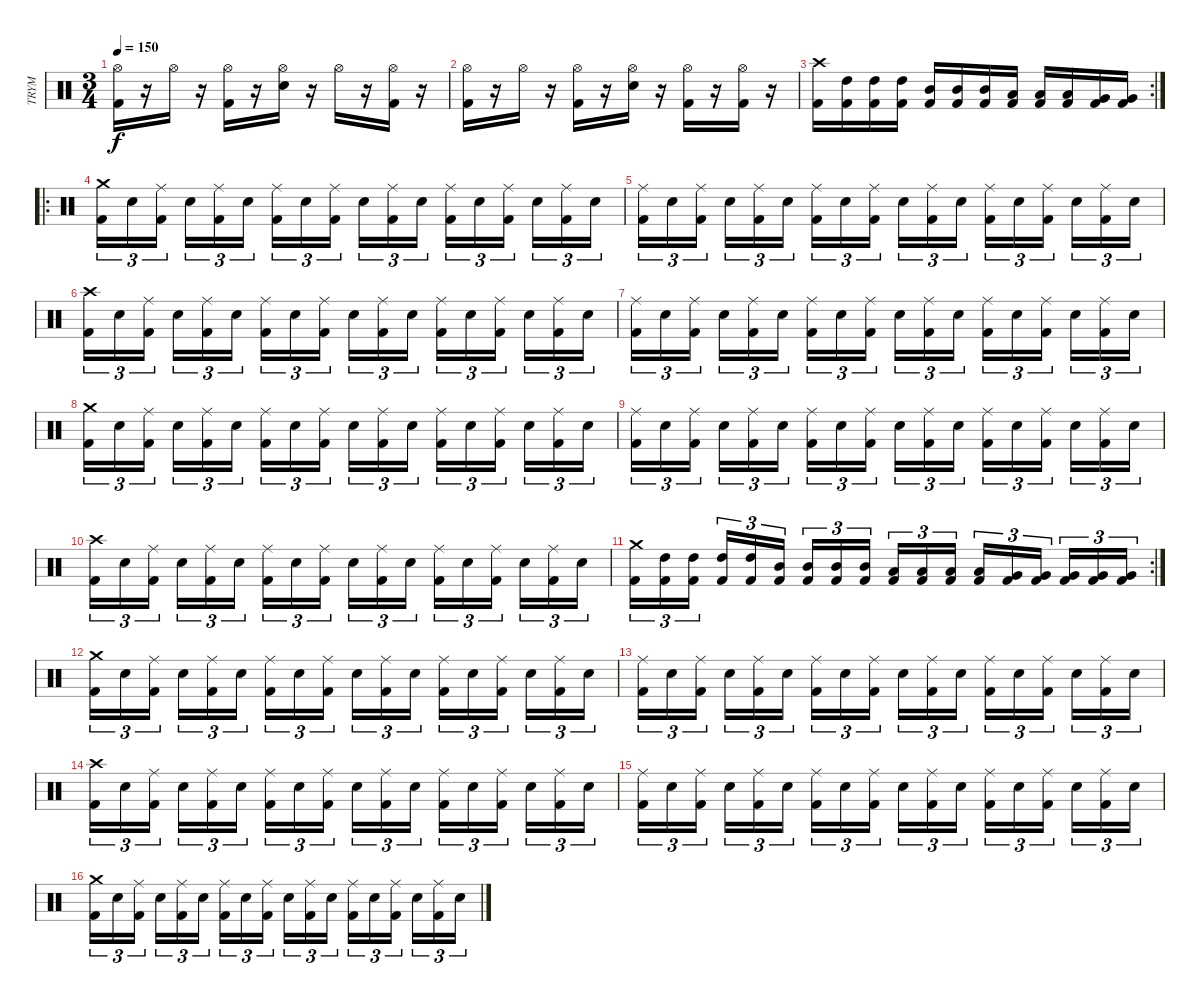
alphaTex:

\track ("TRYM" "TRYM") {instrument percussion}
\staff {score}
\articulation defaults
\ts (3 4)
\tempo 150
\clef neutral
\ks c
("Kick (hit) 2" "Hi-Hat (open)").16{dy f} r.16 "Hi-Hat (open)".16 r.16 ("Kick (hit) 2" "Hi-Hat (open)").16 r.16 ("Hi-Hat (open)" "Electric Snare (hit)").16 r.16 "Hi-Hat (open)".16 r.16 ("Kick (hit) 2" "Hi-Hat (open)").16 r.16 |
("Kick (hit) 2" "Hi-Hat (open)").16 r.16 "Hi-Hat (open)".16 r.16 ("Kick (hit) 2" "Hi-Hat (open)").16 r.16 ("Hi-Hat (open)" "Electric Snare (hit)").16 r.16 ("Kick (hit) 2" "Hi-Hat (open)").16 r.16 ("Kick (hit) 2" "Hi-Hat (open)").16 r.16 |
\rc 2
("Kick (hit) 2" "Crash high (hit)").16 ("Kick (hit) 2" "High Tom (hit)").16 ("Kick (hit) 2" "High Tom (hit)").16 ("Kick (hit) 2" "High Tom (hit)").16 ("Kick (hit) 2" "Mid Tom (hit)").16 ("Kick (hit) 2" "Mid Tom (hit)").16 ("Kick (hit) 2" "Mid Tom (hit)").16 ("Kick (hit) 2" "Low Tom (hit)").16 ("Kick (hit) 2" "Low Tom (hit)").16 ("Kick (hit) 2" "Low Tom (hit)").16 ("Kick (hit) 2" "Very Low Tom (hit)").16 ("Kick (hit) 2" "Very Low Tom (hit)").16 |
\ro
("Kick (hit) 2" "Crash medium (hit)").16{tu (3 2)} "Electric Snare (hit)".16{tu (3 2)} ("Kick (hit) 2" "Ride (middle)").16{tu (3 2)} "Electric Snare (hit)".16{tu (3 2)} ("Kick (hit) 2" "Ride (middle)").16{tu (3 2)} "Electric Snare (hit)".16{tu (3 2)} ("Kick (hit) 2" "Ride (middle)").16{tu (3 2)} "Electric Snare (hit)".16{tu (3 2)} ("Kick (hit) 2" "Ride (middle)").16{tu (3 2)} "Electric Snare (hit)".16{tu (3 2)} ("Kick (hit) 2" "Ride (middle)").16{tu (3 2)} "Electric Snare (hit)".16{tu (3 2)} ("Kick (hit) 2" "Ride (middle)").16{tu (3 2)} "Electric Snare (hit)".16{tu (3 2)} ("Kick (hit) 2" "Ride (middle)").16{tu (3 2)} "Electric Snare (hit)".16{tu (3 2)} ("Kick (hit) 2" "Ride (middle)").16{tu (3 2)} "Electric Snare (hit)".16{tu (3 2)} |
("Kick (hit) 2" "Ride (middle)").16{tu (3 2)} "Electric Snare (hit)".16{tu (3 2)} ("Kick (hit) 2" "Ride (middle)").16{tu (3 2)} "Electric Snare (hit)".16{tu (3 2)} ("Kick (hit) 2" "Ride (middle)").16{tu (3 2)} "Electric Snare (hit)".16{tu (3 2)} ("Kick (hit) 2" "Ride (middle)").16{tu (3 2)} "Electric Snare (hit)".16{tu (3 2)} ("Kick (hit) 2" "Ride (middle)").16{tu (3 2)} "Electric Snare (hit)".16{tu (3 2)} ("Kick (hit) 2" "Ride (middle)").16{tu (3 2)} "Electric Snare (hit)".16{tu (3 2)} ("Kick (hit) 2" "Ride (middle)").16{tu (3 2)} "Electric Snare (hit)".16{tu (3 2)} ("Kick (hit) 2" "Ride (middle)").16{tu (3 2)} "Electric Snare (hit)".16{tu (3 2)} ("Kick (hit) 2" "Ride (middle)").16{tu (3 2)} "Electric Snare (hit)".16{tu (3 2)} |
("Kick (hit) 2" "Crash high (hit)").16{tu (3 2)} "Electric Snare (hit)".16{tu (3 2)} ("Kick (hit) 2" "Ride (middle)").16{tu (3 2)} "Electric Snare (hit)".16{tu (3 2)} ("Kick (hit) 2" "Ride (middle)").16{tu (3 2)} "Electric Snare (hit)".16{tu (3 2)} ("Kick (hit) 2" "Ride (middle)").16{tu (3 2)} "Electric Snare (hit)".16{tu (3 2)} ("Kick (hit) 2" "Ride (middle)").16{tu (3 2)} "Electric Snare (hit)".16{tu (3 2)} ("Kick (hit) 2" "Ride (middle)").16{tu (3 2)} "Electric Snare (hit)".16{tu (3 2)} ("Kick (hit) 2" "Ride (middle)").16{tu (3 2)} "Electric Snare (hit)".16{tu (3 2)} ("Kick (hit) 2" "Ride (middle)").16{tu (3 2)} "Electric Snare (hit)".16{tu (3 2)} ("Kick (hit) 2" "Ride (middle)").16{tu (3 2)} "Electric Snare (hit)".16{tu (3 2)} |
("Kick (hit) 2" "Ride (middle)").16{tu (3 2)} "Electric Snare (hit)".16{tu (3 2)} ("Kick (hit) 2" "Ride (middle)").16{tu (3 2)} "Electric Snare (hit)".16{tu (3 2)} ("Kick (hit) 2" "Ride (middle)").16{tu (3 2)} "Electric Snare (hit)".16{tu (3 2)} ("Kick (hit) 2" "Ride (middle)").16{tu (3 2)} "Electric Snare (hit)".16{tu (3 2)} ("Kick (hit) 2" "Ride (middle)").16{tu (3 2)} "Electric Snare (hit)".16{tu (3 2)} ("Kick (hit) 2" "Ride (middle)").16{tu (3 2)} "Electric Snare (hit)".16{tu (3 2)} ("Kick (hit) 2" "Ride (middle)").16{tu (3 2)} "Electric Snare (hit)".16{tu (3 2)} ("Kick (hit) 2" "Ride (middle)").16{tu (3 2)} "Electric Snare (hit)".16{tu (3 2)} ("Kick (hit) 2" "Ride (middle)").16{tu (3 2)} "Electric Snare (hit)".16{tu (3 2)} |
("Kick (hit) 2" "Crash medium (hit)").16{tu (3 2)} "Electric Snare (hit)".16{tu (3 2)} ("Kick (hit) 2" "Ride (middle)").16{tu (3 2)} "Electric Snare (hit)".16{tu (3 2)} ("Kick (hit) 2" "Ride (middle)").16{tu (3 2)} "Electric Snare (hit)".16{tu (3 2)} ("Kick (hit) 2" "Ride (middle)").16{tu (3 2)} "Electric Snare (hit)".16{tu (3 2)} ("Kick (hit) 2" "Ride (middle)").16{tu (3 2)} "Electric Snare (hit)".16{tu (3 2)} ("Kick (hit) 2" "Ride (middle)").16{tu (3 2)} "Electric Snare (hit)".16{tu (3 2)} ("Kick (hit) 2" "Ride (middle)").16{tu (3 2)} "Electric Snare (hit)".16{tu (3 2)} ("Kick (hit) 2" "Ride (middle)").16{tu (3 2)} "Electric Snare (hit)".16{tu (3 2)} ("Kick (hit) 2" "Ride (middle)").16{tu (3 2)} "Electric Snare (hit)".16{tu (3 2)} |
("Kick (hit) 2" "Ride (middle)").16{tu (3 2)} "Electric Snare (hit)".16{tu (3 2)} ("Kick (hit) 2" "Ride (middle)").16{tu (3 2)} "Electric Snare (hit)".16{tu (3 2)} ("Kick (hit) 2" "Ride (middle)").16{tu (3 2)} "Electric Snare (hit)".16{tu (3 2)} ("Kick (hit) 2" "Ride (middle)").16{tu (3 2)} "Electric Snare (hit)".16{tu (3 2)} ("Kick (hit) 2" "Ride (middle)").16{tu (3 2)} "Electric Snare (hit)".16{tu (3 2)} ("Kick (hit) 2" "Ride (middle)").16{tu (3 2)} "Electric Snare (hit)".16{tu (3 2)} ("Kick (hit) 2" "Ride (middle)").16{tu (3 2)} "Electric Snare (hit)".16{tu (3 2)} ("Kick (hit) 2" "Ride (middle)").16{tu (3 2)} "Electric Snare (hit)".16{tu (3 2)} ("Kick (hit) 2" "Ride (middle)").16{tu (3 2)} "Electric Snare (hit)".16{tu (3 2)} |
("Kick (hit) 2" "Crash high (hit)").16{tu (3 2)} "Electric Snare (hit)".16{tu (3 2)} ("Kick (hit) 2" "Ride (middle)").16{tu (3 2)} "Electric Snare (hit)".16{tu (3 2)} ("Kick (hit) 2" "Ride (middle)").16{tu (3 2)} "Electric Snare (hit)".16{tu (3 2)} ("Kick (hit) 2" "Ride (middle)").16{tu (3 2)} "Electric Snare (hit)".16{tu (3 2)} ("Kick (hit) 2" "Ride (middle)").16{tu (3 2)} "Electric Snare (hit)".16{tu (3 2)} ("Kick (hit) 2" "Ride (middle)").16{tu (3 2)} "Electric Snare (hit)".16{tu (3 2)} ("Kick (hit) 2" "Ride (middle)").16{tu (3 2)} "Electric Snare (hit)".16{tu (3 2)} ("Kick (hit) 2" "Ride (middle)").16{tu (3 2)} "Electric Snare (hit)".16{tu (3 2)} ("Kick (hit) 2" "Ride (middle)").16{tu (3 2)} "Electric Snare (hit)".16{tu (3 2)} |
\rc 2
("Kick (hit) 2" "Crash medium (hit)").16{tu (3 2)} ("Kick (hit) 2" "High Tom (hit)").16{tu (3 2)} ("Kick (hit) 2" "High Tom (hit)").16{tu (3 2)} ("Kick (hit) 2" "High Tom (hit)").16{tu (3 2)} ("Kick (hit) 2" "High Tom (hit)").16{tu (3 2)} ("Kick (hit) 2" "Mid Tom (hit)").16{tu (3 2)} ("Kick (hit) 2" "Mid Tom (hit)").16{tu (3 2)} ("Kick (hit) 2" "Mid Tom (hit)").16{tu (3 2)} ("Kick (hit) 2" "Mid Tom (hit)").16{tu (3 2)} ("Kick (hit) 2" "Low Tom (hit)").16{tu (3 2)} ("Kick (hit) 2" "Low Tom (hit)").16{tu (3 2)} ("Kick (hit) 2" "Low Tom (hit)").16{tu (3 2)} ("Kick (hit) 2" "Low Tom (hit)").16{tu (3 2)} ("Kick (hit) 2" "Very Low Tom (hit)").16{tu (3 2)} ("Kick (hit) 2" "Very Low Tom (hit)").16{tu (3 2)} ("Kick (hit) 2" "Very Low Tom (hit)").16{tu (3 2)} ("Kick (hit) 2" "Very Low Tom (hit)").16{tu (3 2)} ("Kick (hit) 2" "Very Low Tom (hit)").16{tu (3 2)} |
("Kick (hit) 2" "Crash medium (hit)").16{tu (3 2)} "Electric Snare (hit)".16{tu (3 2)} ("Kick (hit) 2" "Ride (middle)").16{tu (3 2)} "Electric Snare (hit)".16{tu (3 2)} ("Kick (hit) 2" "Ride (middle)").16{tu (3 2)} "Electric Snare (hit)".16{tu (3 2)} ("Kick (hit) 2" "Ride (middle)").16{tu (3 2)} "Electric Snare (hit)".16{tu (3 2)} ("Kick (hit) 2" "Ride (middle)").16{tu (3 2)} "Electric Snare (hit)".16{tu (3 2)} ("Kick (hit) 2" "Ride (middle)").16{tu (3 2)} "Electric Snare (hit)".16{tu (3 2)} ("Kick (hit) 2" "Ride (middle)").16{tu (3 2)} "Electric Snare (hit)".16{tu (3 2)} ("Kick (hit) 2" "Ride (middle)").16{tu (3 2)} "Electric Snare (hit)".16{tu (3 2)} ("Kick (hit) 2" "Ride (middle)").16{tu (3 2)} "Electric Snare (hit)".16{tu (3 2)} |
("Kick (hit) 2" "Ride (middle)").16{tu (3 2)} "Electric Snare (hit)".16{tu (3 2)} ("Kick (hit) 2" "Ride (middle)").16{tu (3 2)} "Electric Snare (hit)".16{tu (3 2)} ("Kick (hit) 2" "Ride (middle)").16{tu (3 2)} "Electric Snare (hit)".16{tu (3 2)} ("Kick (hit) 2" "Ride (middle)").16{tu (3 2)} "Electric Snare (hit)".16{tu (3 2)} ("Kick (hit) 2" "Ride (middle)").16{tu (3 2)} "Electric Snare (hit)".16{tu (3 2)} ("Kick (hit) 2" "Ride (middle)").16{tu (3 2)} "Electric Snare (hit)".16{tu (3 2)} ("Kick (hit) 2" "Ride (middle)").16{tu (3 2)} "Electric Snare (hit)".16{tu (3 2)} ("Kick (hit) 2" "Ride (middle)").16{tu (3 2)} "Electric Snare (hit)".16{tu (3 2)} ("Kick (hit) 2" "Ride (middle)").16{tu (3 2)} "Electric Snare (hit)".16{tu (3 2)} |
("Kick (hit) 2" "Crash high (hit)").16{tu (3 2)} "Electric Snare (hit)".16{tu (3 2)} ("Kick (hit) 2" "Ride (middle)").16{tu (3 2)} "Electric Snare (hit)".16{tu (3 2)} ("Kick (hit) 2" "Ride (middle)").16{tu (3 2)} "Electric Snare (hit)".16{tu (3 2)} ("Kick (hit) 2" "Ride (middle)").16{tu (3 2)} "Electric Snare (hit)".16{tu (3 2)} ("Kick (hit) 2" "Ride (middle)").16{tu (3 2)} "Electric Snare (hit)".16{tu (3 2)} ("Kick (hit) 2" "Ride (middle)").16{tu (3 2)} "Electric Snare (hit)".16{tu (3 2)} ("Kick (hit) 2" "Ride (middle)").16{tu (3 2)} "Electric Snare (hit)".16{tu (3 2)} ("Kick (hit) 2" "Ride (middle)").16{tu (3 2)} "Electric Snare (hit)".16{tu (3 2)} ("Kick (hit) 2" "Ride (middle)").16{tu (3 2)} "Electric Snare (hit)".16{tu (3 2)} |
("Kick (hit) 2" "Ride (middle)").16{tu (3 2)} "Electric Snare (hit)".16{tu (3 2)} ("Kick (hit) 2" "Ride (middle)").16{tu (3 2)} "Electric Snare (hit)".16{tu (3 2)} ("Kick (hit) 2" "Ride (middle)").16{tu (3 2)} "Electric Snare (hit)".16{tu (3 2)} ("Kick (hit) 2" "Ride (middle)").16{tu (3 2)} "Electric Snare (hit)".16{tu (3 2)} ("Kick (hit) 2" "Ride (middle)").16{tu (3 2)} "Electric Snare (hit)".16{tu (3 2)} ("Kick (hit) 2" "Ride (middle)").16{tu (3 2)} "Electric Snare (hit)".16{tu (3 2)} ("Kick (hit) 2" "Ride (middle)").16{tu (3 2)} "Electric Snare (hit)".16{tu (3 2)} ("Kick (hit) 2" "Ride (middle)").16{tu (3 2)} "Electric Snare (hit)".16{tu (3 2)} ("Kick (hit) 2" "Ride (middle)").16{tu (3 2)} "Electric Snare (hit)".16{tu (3 2)} |
("Kick (hit) 2" "Crash medium (hit)").16{tu (3 2)} "Electric Snare (hit)".16{tu (3 2)} ("Kick (hit) 2" "Ride (middle)").16{tu (3 2)} "Electric Snare (hit)".16{tu (3 2)} ("Kick (hit) 2" "Ride (middle)").16{tu (3 2)} "Electric Snare (hit)".16{tu (3 2)} ("Kick (hit) 2" "Ride (middle)").16{tu (3 2)} "Electric Snare (hit)".16{tu (3 2)} ("Kick (hit) 2" "Ride (middle)").16{tu (3 2)} "Electric Snare (hit)".16{tu (3 2)} ("Kick (hit) 2" "Ride (middle)").16{tu (3 2)} "Electric Snare (hit)".16{tu (3 2)} ("Kick (hit) 2" "Ride (middle)").16{tu (3 2)} "Electric Snare (hit)".16{tu (3 2)} ("Kick (hit) 2" "Ride (middle)").16{tu (3 2)} "Electric Snare (hit)".16{tu (3 2)} ("Kick (hit) 2" "Ride (middle)").16{tu (3 2)} "Electric Snare (hit)".16{tu (3 2)}
